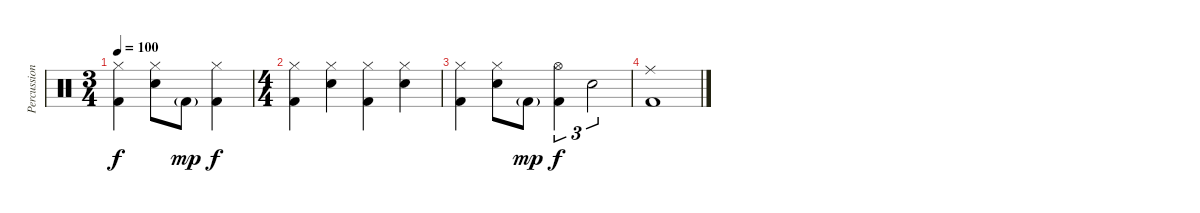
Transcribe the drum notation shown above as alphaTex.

\track ("Percussion" "Percussion") {instrument percussion}
\staff {score}
\articulation defaults
\ts (3 4)
\tempo 100
\clef neutral
\ks c
("Hi-Hat (closed)" "Kick (hit) 2").4{dy f} ("Hi-Hat (closed)" "Snare (hit) 2").8 "Kick (hit) 2"{g}.8{dy mp} ("Hi-Hat (closed)" "Kick (hit) 2").4{dy f} |
\ts (4 4)
("Hi-Hat (closed)" "Kick (hit) 2").4 ("Hi-Hat (closed)" "Snare (hit) 2").4 ("Hi-Hat (closed)" "Kick (hit) 2").4 ("Hi-Hat (closed)" "Snare (hit) 2").4 |
("Hi-Hat (closed)" "Kick (hit) 2").4 ("Hi-Hat (closed)" "Snare (hit) 2").8 "Kick (hit) 2"{g}.8{dy mp} ("Hi-Hat (open)" "Kick (hit) 2").4{tu (3 2) dy f} "Snare (hit) 2".2{tu (3 2)} |
("Ride (middle)" "Kick (hit) 2").1
